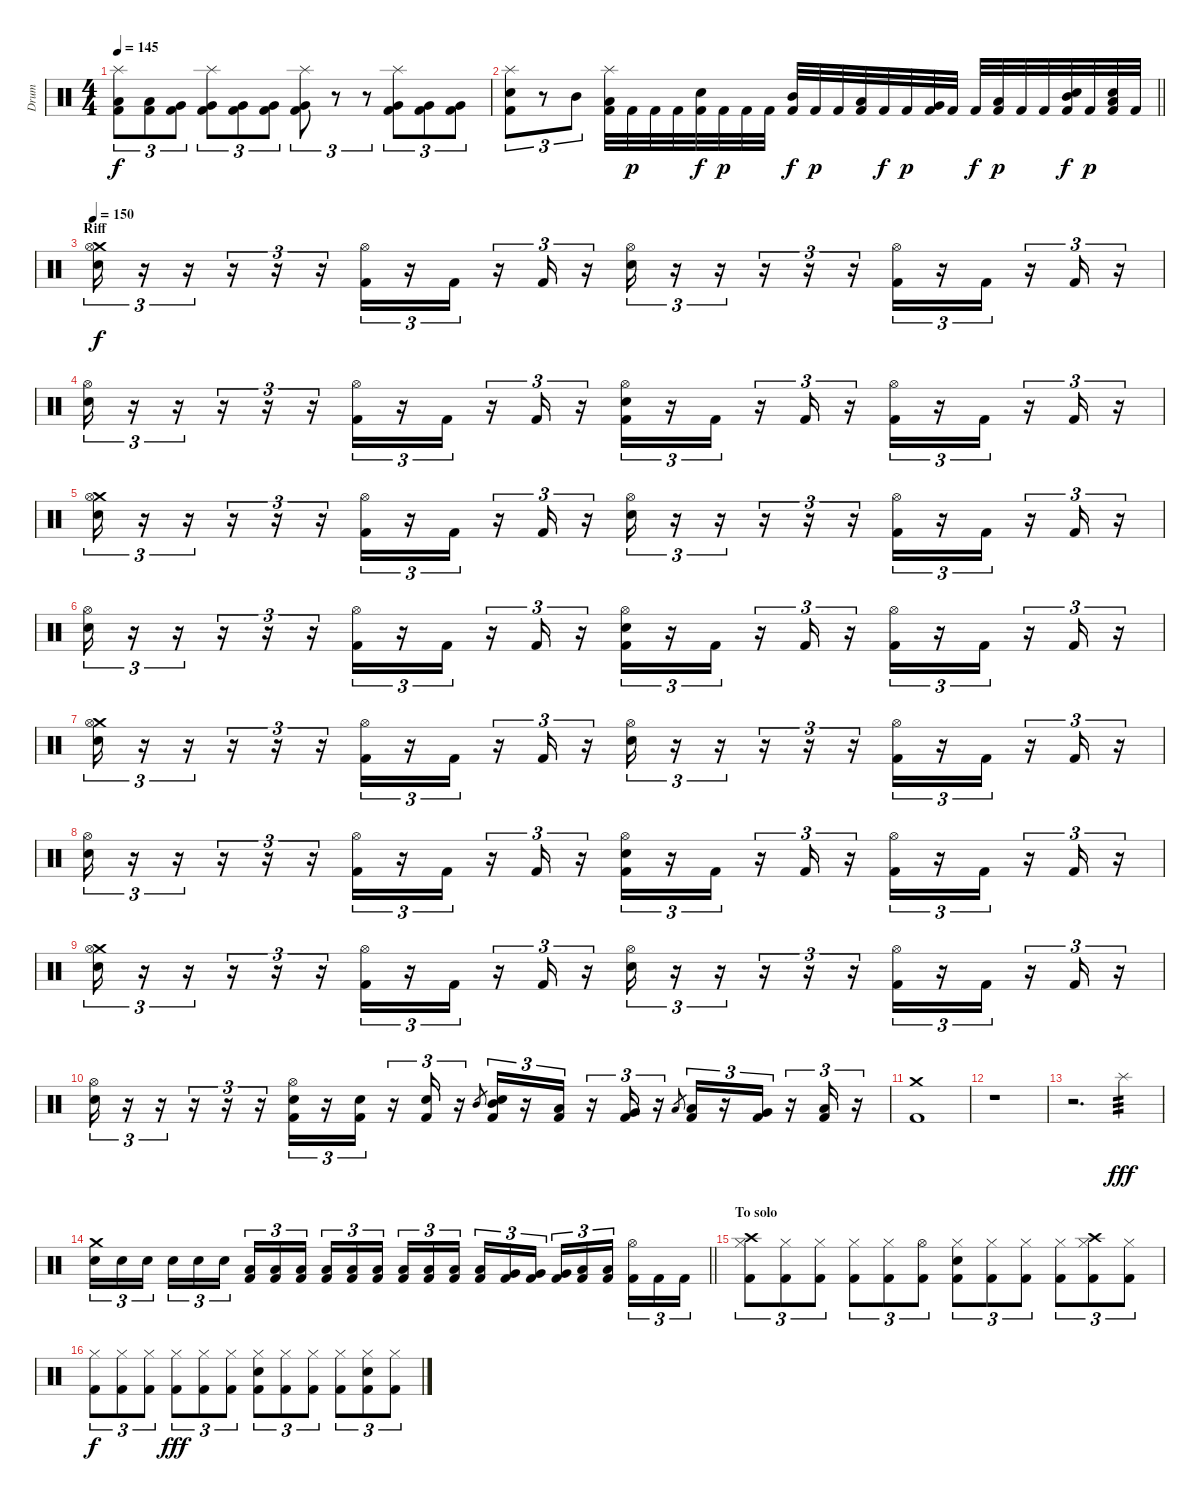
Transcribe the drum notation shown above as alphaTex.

\track ("Drum" "Drum") {instrument percussion}
\staff {score}
\articulation defaults
\ts (4 4)
\tempo 145
\clef neutral
\ks c
("Splash (hit)" "Low Tom (hit)" "Kick (hit) 2").8{tu (3 2) dy f} ("Low Tom (hit)" "Kick (hit) 2").8{tu (3 2)} ("Very Low Tom (hit)" "Kick (hit) 2").8{tu (3 2)} ("Splash (hit)" "Very Low Tom (hit)" "Kick (hit) 2").8{tu (3 2)} ("Very Low Tom (hit)" "Kick (hit) 2").8{tu (3 2)} ("Very Low Tom (hit)" "Kick (hit) 2").8{tu (3 2)} ("Splash (hit)" "Very Low Tom (hit)" "Kick (hit) 2").8{tu (3 2)} r.8{tu (3 2)} r.8{tu (3 2)} ("Splash (hit)" "Very Low Tom (hit)" "Kick (hit) 2").8{tu (3 2)} ("Very Low Tom (hit)" "Kick (hit) 2").8{tu (3 2)} ("Very Low Tom (hit)" "Kick (hit) 2").8{tu (3 2)} |
\barLineRight lightlight
("Splash (hit)" "Electric Snare (hit)" "Kick (hit) 2").8{tu (3 2)} r.8{tu (3 2)} "Mid Tom (hit)".8{tu (3 2)} ("Splash (hit)" "Low Tom (hit)" "Kick (hit) 2").32 "Kick (hit) 2".32{dy p} "Kick (hit) 2".32 "Kick (hit) 2".32 ("Electric Snare (hit)" "Kick (hit) 2").32{dy f} "Kick (hit) 2".32{dy p} "Kick (hit) 2".32 "Kick (hit) 2".32 ("Mid Tom (hit)" "Kick (hit) 2").32{dy f} "Kick (hit) 2".32{dy p} "Kick (hit) 2".32 ("Low Tom (hit)" "Kick (hit) 2").32 "Kick (hit) 2".32{dy f} "Kick (hit) 2".32{dy p} ("Very Low Tom (hit)" "Kick (hit) 2").32 "Kick (hit) 2".32 "Kick (hit) 2".32{dy f} ("Low Tom (hit)" "Kick (hit) 2").32{dy p} "Kick (hit) 2".32 "Kick (hit) 2".32 ("Mid Tom (hit)" "Electric Snare (hit)" "Kick (hit) 2").32{dy f} "Kick (hit) 2".32{dy p} ("Low Tom (hit)" "Electric Snare (hit)" "Kick (hit) 2").32 "Kick (hit) 2".32 |
\section ("" "Riff")
\tempo 150
("Crash medium (hit)" "Hi-Hat (open)" "Electric Snare (hit)").16{tu (3 2) dy f} r.16{tu (3 2)} r.16{tu (3 2)} r.16{tu (3 2)} r.16{tu (3 2)} r.16{tu (3 2)} ("Hi-Hat (open)" "Kick (hit) 2").16{tu (3 2)} r.16{tu (3 2)} "Kick (hit) 2".16{tu (3 2)} r.16{tu (3 2)} "Kick (hit) 2".16{tu (3 2)} r.16{tu (3 2)} ("Hi-Hat (open)" "Electric Snare (hit)").16{tu (3 2)} r.16{tu (3 2)} r.16{tu (3 2)} r.16{tu (3 2)} r.16{tu (3 2)} r.16{tu (3 2)} ("Hi-Hat (open)" "Kick (hit) 2").16{tu (3 2)} r.16{tu (3 2)} "Kick (hit) 2".16{tu (3 2)} r.16{tu (3 2)} "Kick (hit) 2".16{tu (3 2)} r.16{tu (3 2)} |
("Hi-Hat (open)" "Electric Snare (hit)").16{tu (3 2)} r.16{tu (3 2)} r.16{tu (3 2)} r.16{tu (3 2)} r.16{tu (3 2)} r.16{tu (3 2)} ("Hi-Hat (open)" "Kick (hit) 2").16{tu (3 2)} r.16{tu (3 2)} "Kick (hit) 2".16{tu (3 2)} r.16{tu (3 2)} "Kick (hit) 2".16{tu (3 2)} r.16{tu (3 2)} ("Hi-Hat (open)" "Electric Snare (hit)" "Kick (hit) 2").16{tu (3 2)} r.16{tu (3 2)} "Kick (hit) 2".16{tu (3 2)} r.16{tu (3 2)} "Kick (hit) 2".16{tu (3 2)} r.16{tu (3 2)} ("Hi-Hat (open)" "Kick (hit) 2").16{tu (3 2)} r.16{tu (3 2)} "Kick (hit) 2".16{tu (3 2)} r.16{tu (3 2)} "Kick (hit) 2".16{tu (3 2)} r.16{tu (3 2)} |
("Crash medium (hit)" "Hi-Hat (open)" "Electric Snare (hit)").16{tu (3 2)} r.16{tu (3 2)} r.16{tu (3 2)} r.16{tu (3 2)} r.16{tu (3 2)} r.16{tu (3 2)} ("Hi-Hat (open)" "Kick (hit) 2").16{tu (3 2)} r.16{tu (3 2)} "Kick (hit) 2".16{tu (3 2)} r.16{tu (3 2)} "Kick (hit) 2".16{tu (3 2)} r.16{tu (3 2)} ("Hi-Hat (open)" "Electric Snare (hit)").16{tu (3 2)} r.16{tu (3 2)} r.16{tu (3 2)} r.16{tu (3 2)} r.16{tu (3 2)} r.16{tu (3 2)} ("Hi-Hat (open)" "Kick (hit) 2").16{tu (3 2)} r.16{tu (3 2)} "Kick (hit) 2".16{tu (3 2)} r.16{tu (3 2)} "Kick (hit) 2".16{tu (3 2)} r.16{tu (3 2)} |
("Hi-Hat (open)" "Electric Snare (hit)").16{tu (3 2)} r.16{tu (3 2)} r.16{tu (3 2)} r.16{tu (3 2)} r.16{tu (3 2)} r.16{tu (3 2)} ("Hi-Hat (open)" "Kick (hit) 2").16{tu (3 2)} r.16{tu (3 2)} "Kick (hit) 2".16{tu (3 2)} r.16{tu (3 2)} "Kick (hit) 2".16{tu (3 2)} r.16{tu (3 2)} ("Hi-Hat (open)" "Electric Snare (hit)" "Kick (hit) 2").16{tu (3 2)} r.16{tu (3 2)} "Kick (hit) 2".16{tu (3 2)} r.16{tu (3 2)} "Kick (hit) 2".16{tu (3 2)} r.16{tu (3 2)} ("Hi-Hat (open)" "Kick (hit) 2").16{tu (3 2)} r.16{tu (3 2)} "Kick (hit) 2".16{tu (3 2)} r.16{tu (3 2)} "Kick (hit) 2".16{tu (3 2)} r.16{tu (3 2)} |
("Crash medium (hit)" "Hi-Hat (open)" "Electric Snare (hit)").16{tu (3 2)} r.16{tu (3 2)} r.16{tu (3 2)} r.16{tu (3 2)} r.16{tu (3 2)} r.16{tu (3 2)} ("Hi-Hat (open)" "Kick (hit) 2").16{tu (3 2)} r.16{tu (3 2)} "Kick (hit) 2".16{tu (3 2)} r.16{tu (3 2)} "Kick (hit) 2".16{tu (3 2)} r.16{tu (3 2)} ("Hi-Hat (open)" "Electric Snare (hit)").16{tu (3 2)} r.16{tu (3 2)} r.16{tu (3 2)} r.16{tu (3 2)} r.16{tu (3 2)} r.16{tu (3 2)} ("Hi-Hat (open)" "Kick (hit) 2").16{tu (3 2)} r.16{tu (3 2)} "Kick (hit) 2".16{tu (3 2)} r.16{tu (3 2)} "Kick (hit) 2".16{tu (3 2)} r.16{tu (3 2)} |
("Hi-Hat (open)" "Electric Snare (hit)").16{tu (3 2)} r.16{tu (3 2)} r.16{tu (3 2)} r.16{tu (3 2)} r.16{tu (3 2)} r.16{tu (3 2)} ("Hi-Hat (open)" "Kick (hit) 2").16{tu (3 2)} r.16{tu (3 2)} "Kick (hit) 2".16{tu (3 2)} r.16{tu (3 2)} "Kick (hit) 2".16{tu (3 2)} r.16{tu (3 2)} ("Hi-Hat (open)" "Electric Snare (hit)" "Kick (hit) 2").16{tu (3 2)} r.16{tu (3 2)} "Kick (hit) 2".16{tu (3 2)} r.16{tu (3 2)} "Kick (hit) 2".16{tu (3 2)} r.16{tu (3 2)} ("Hi-Hat (open)" "Kick (hit) 2").16{tu (3 2)} r.16{tu (3 2)} "Kick (hit) 2".16{tu (3 2)} r.16{tu (3 2)} "Kick (hit) 2".16{tu (3 2)} r.16{tu (3 2)} |
("Crash medium (hit)" "Hi-Hat (open)" "Electric Snare (hit)").16{tu (3 2)} r.16{tu (3 2)} r.16{tu (3 2)} r.16{tu (3 2)} r.16{tu (3 2)} r.16{tu (3 2)} ("Hi-Hat (open)" "Kick (hit) 2").16{tu (3 2)} r.16{tu (3 2)} "Kick (hit) 2".16{tu (3 2)} r.16{tu (3 2)} "Kick (hit) 2".16{tu (3 2)} r.16{tu (3 2)} ("Hi-Hat (open)" "Electric Snare (hit)").16{tu (3 2)} r.16{tu (3 2)} r.16{tu (3 2)} r.16{tu (3 2)} r.16{tu (3 2)} r.16{tu (3 2)} ("Hi-Hat (open)" "Kick (hit) 2").16{tu (3 2)} r.16{tu (3 2)} "Kick (hit) 2".16{tu (3 2)} r.16{tu (3 2)} "Kick (hit) 2".16{tu (3 2)} r.16{tu (3 2)} |
("Hi-Hat (open)" "Electric Snare (hit)").16{tu (3 2)} r.16{tu (3 2)} r.16{tu (3 2)} r.16{tu (3 2)} r.16{tu (3 2)} r.16{tu (3 2)} ("Hi-Hat (open)" "Electric Snare (hit)" "Kick (hit) 2").16{tu (3 2)} r.16{tu (3 2)} ("Electric Snare (hit)" "Kick (hit) 2").16{tu (3 2)} r.16{tu (3 2)} ("Electric Snare (hit)" "Kick (hit) 2").16{tu (3 2)} r.16{tu (3 2)} "Mid Tom (hit)".8{gr} ("Mid Tom (hit)" "Electric Snare (hit)" "Kick (hit) 2").16{tu (3 2)} r.16{tu (3 2)} ("Low Tom (hit)" "Kick (hit) 2").16{tu (3 2)} r.16{tu (3 2)} ("Very Low Tom (hit)" "Kick (hit) 2").16{tu (3 2)} r.16{tu (3 2)} "Low Tom (hit)".8{gr} ("Low Tom (hit)" "Kick (hit) 2").16{tu (3 2)} r.16{tu (3 2)} ("Very Low Tom (hit)" "Kick (hit) 2").16{tu (3 2)} r.16{tu (3 2)} ("Low Floor Tom (hit)" "Kick (hit) 2").16{tu (3 2)} r.16{tu (3 2)} |
("Crash medium (hit)" "Kick (hit) 2").1 |
r.1 |
r.2{d} "Splash (hit)".4{tp 3 dy fff} |
\barLineRight lightlight
("Crash medium (hit)" "Electric Snare (hit)").16{tu (3 2)} "Electric Snare (hit)".16{tu (3 2)} "Electric Snare (hit)".16{tu (3 2) beam splitsecondary} "Electric Snare (hit)".16{tu (3 2)} "Electric Snare (hit)".16{tu (3 2)} "Electric Snare (hit)".16{tu (3 2)} ("Low Floor Tom (hit)" "Kick (hit) 2").16{tu (3 2)} ("Low Floor Tom (hit)" "Kick (hit) 2").16{tu (3 2)} ("Low Floor Tom (hit)" "Kick (hit) 2").16{tu (3 2) beam splitsecondary} ("Low Floor Tom (hit)" "Kick (hit) 2").16{tu (3 2)} ("Low Floor Tom (hit)" "Kick (hit) 2").16{tu (3 2)} ("Low Floor Tom (hit)" "Kick (hit) 2").16{tu (3 2)} ("Low Tom (hit)" "Kick (hit) 2").16{tu (3 2)} ("Low Tom (hit)" "Kick (hit) 2").16{tu (3 2)} ("Low Tom (hit)" "Kick (hit) 2").16{tu (3 2) beam splitsecondary} ("Low Tom (hit)" "Kick (hit) 2").16{tu (3 2)} ("Very Low Tom (hit)" "Kick (hit) 2").16{tu (3 2)} ("Very Low Tom (hit)" "Kick (hit) 2").16{tu (3 2)} ("Very Low Tom (hit)" "Kick (hit) 2").16{tu (3 2)} ("Low Floor Tom (hit)" "Kick (hit) 2").16{tu (3 2)} ("Low Floor Tom (hit)" "Kick (hit) 2").16{tu (3 2) beam splitsecondary} ("Hi-Hat (open)" "Kick (hit) 2").16{tu (3 2)} "Kick (hit) 2".16{tu (3 2)} "Kick (hit) 2".16{tu (3 2)} |
\section ("" "To solo")
("Crash high (hit)" "Hi-Hat (closed)" "Kick (hit) 2").8{tu (3 2)} ("Hi-Hat (closed)" "Kick (hit) 2").8{tu (3 2)} ("Hi-Hat (closed)" "Kick (hit) 2").8{tu (3 2)} ("Hi-Hat (closed)" "Kick (hit) 2").8{tu (3 2)} ("Hi-Hat (closed)" "Kick (hit) 2").8{tu (3 2)} ("Hi-Hat (open)" "Kick (hit) 2").8{tu (3 2)} ("Hi-Hat (closed)" "Electric Snare (hit)" "Kick (hit) 2").8{tu (3 2)} ("Hi-Hat (closed)" "Kick (hit) 2").8{tu (3 2)} ("Hi-Hat (closed)" "Kick (hit) 2").8{tu (3 2)} ("Hi-Hat (closed)" "Kick (hit) 2").8{tu (3 2)} ("Crash high (hit)" "Hi-Hat (closed)" "Kick (hit) 2").8{tu (3 2)} ("Hi-Hat (closed)" "Kick (hit) 2").8{tu (3 2)} |
("Hi-Hat (closed)" "Kick (hit) 2").8{tu (3 2) dy f} ("Hi-Hat (closed)" "Kick (hit) 2").8{tu (3 2)} ("Hi-Hat (closed)" "Kick (hit) 2").8{tu (3 2)} ("Hi-Hat (closed)" "Kick (hit) 2").8{tu (3 2) dy fff} ("Hi-Hat (closed)" "Kick (hit) 2").8{tu (3 2)} ("Hi-Hat (closed)" "Kick (hit) 2").8{tu (3 2)} ("Hi-Hat (closed)" "Electric Snare (hit)" "Kick (hit) 2").8{tu (3 2)} ("Hi-Hat (closed)" "Kick (hit) 2").8{tu (3 2)} ("Hi-Hat (closed)" "Kick (hit) 2").8{tu (3 2)} ("Hi-Hat (closed)" "Kick (hit) 2").8{tu (3 2)} ("Hi-Hat (closed)" "Electric Snare (hit)" "Kick (hit) 2").8{tu (3 2)} ("Hi-Hat (closed)" "Kick (hit) 2").8{tu (3 2)}
